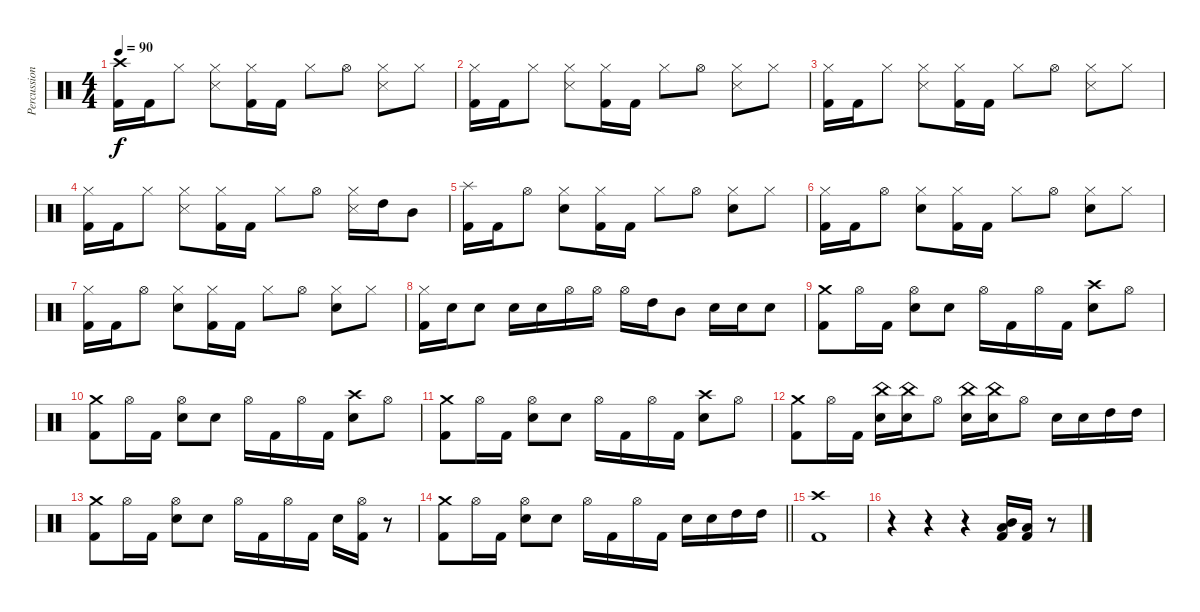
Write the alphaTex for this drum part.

\track ("Percussion" "Percussion") {instrument percussion}
\staff {score}
\articulation defaults
\ts (4 4)
\tempo 90
\clef neutral
\ks c
("Crash high (hit)" "Kick (hit) 2").16{dy f} "Kick (hit) 2".16 "Hi-Hat (closed)".8 ("Hi-Hat (closed)" "Snare (side stick) 3").8 ("Hi-Hat (closed)" "Kick (hit) 2").16 "Kick (hit) 2".16 "Hi-Hat (closed)".8 "Hi-Hat (open)".8 ("Hi-Hat (closed)" "Snare (side stick) 3").8 "Hi-Hat (closed)".8 |
("Hi-Hat (closed)" "Kick (hit) 2").16 "Kick (hit) 2".16 "Hi-Hat (closed)".8 ("Hi-Hat (closed)" "Snare (side stick) 3").8 ("Hi-Hat (closed)" "Kick (hit) 2").16 "Kick (hit) 2".16 "Hi-Hat (closed)".8 "Hi-Hat (open)".8 ("Hi-Hat (closed)" "Snare (side stick) 3").8 "Hi-Hat (closed)".8 |
("Hi-Hat (closed)" "Kick (hit) 2").16 "Kick (hit) 2".16 "Hi-Hat (closed)".8 ("Hi-Hat (closed)" "Snare (side stick) 3").8 ("Hi-Hat (closed)" "Kick (hit) 2").16 "Kick (hit) 2".16 "Hi-Hat (closed)".8 "Hi-Hat (open)".8 ("Hi-Hat (closed)" "Snare (side stick) 3").8 "Hi-Hat (closed)".8 |
("Hi-Hat (closed)" "Kick (hit) 2").16 "Kick (hit) 2".16 "Hi-Hat (closed)".8 ("Hi-Hat (closed)" "Snare (side stick) 3").8 ("Hi-Hat (closed)" "Kick (hit) 2").16 "Kick (hit) 2".16 "Hi-Hat (closed)".8 "Hi-Hat (open)".8 ("Hi-Hat (closed)" "Snare (side stick) 3").16 "High Tom (hit)".16 "Mid Tom (hit)".8 |
("Splash (hit)" "Kick (hit) 2").16 "Kick (hit) 2".16 "Hi-Hat (open)".8 ("Hi-Hat (closed)" "Electric Snare (hit)").8 ("Hi-Hat (closed)" "Kick (hit) 2").16 "Kick (hit) 2".16 "Hi-Hat (closed)".8 "Hi-Hat (open)".8 ("Hi-Hat (closed)" "Electric Snare (hit)").8 "Hi-Hat (closed)".8 |
("Hi-Hat (closed)" "Kick (hit) 2").16 "Kick (hit) 2".16 "Hi-Hat (open)".8 ("Hi-Hat (closed)" "Electric Snare (hit)").8 ("Hi-Hat (closed)" "Kick (hit) 2").16 "Kick (hit) 2".16 "Hi-Hat (closed)".8 "Hi-Hat (open)".8 ("Hi-Hat (closed)" "Electric Snare (hit)").8 "Hi-Hat (closed)".8 |
("Hi-Hat (closed)" "Kick (hit) 2").16 "Kick (hit) 2".16 "Hi-Hat (open)".8 ("Hi-Hat (closed)" "Electric Snare (hit)").8 ("Hi-Hat (closed)" "Kick (hit) 2").16 "Kick (hit) 2".16 "Hi-Hat (closed)".8 "Hi-Hat (open)".8 ("Hi-Hat (closed)" "Electric Snare (hit)").8 "Hi-Hat (closed)".8 |
("Hi-Hat (closed)" "Kick (hit) 2").16 "Electric Snare (hit)".16 "Electric Snare (hit)".8 "Electric Snare (hit)".16 "Electric Snare (hit)".16 "Hi-Hat (open)".16 "Hi-Hat (open)".16 "Hi-Hat (open)".16 "High Tom (hit)".16 "Mid Tom (hit)".8 "Snare (hit) 2".16 "Snare (hit) 2".16 "Snare (hit) 2".8 |
("Crash medium (hit)" "Kick (hit) 2").8 "Hi-Hat (open)".16 "Kick (hit) 2".16 ("Hi-Hat (open)" "Snare (hit) 2").8 "Snare (hit) 2".8 "Hi-Hat (open)".16 "Kick (hit) 2".16 "Hi-Hat (open)".16 "Kick (hit) 2".16 ("Crash high (hit)" "Snare (hit) 2").8 "Hi-Hat (open)".8 |
("Crash medium (hit)" "Kick (hit) 2").8 "Hi-Hat (open)".16 "Kick (hit) 2".16 ("Hi-Hat (open)" "Snare (hit) 2").8 "Snare (hit) 2".8 "Hi-Hat (open)".16 "Kick (hit) 2".16 "Hi-Hat (open)".16 "Kick (hit) 2".16 ("Crash high (hit)" "Snare (hit) 2").8 "Hi-Hat (open)".8 |
("Crash medium (hit)" "Kick (hit) 2").8 "Hi-Hat (open)".16 "Kick (hit) 2".16 ("Hi-Hat (open)" "Snare (hit) 2").8 "Snare (hit) 2".8 "Hi-Hat (open)".16 "Kick (hit) 2".16 "Hi-Hat (open)".16 "Kick (hit) 2".16 ("Crash high (hit)" "Snare (hit) 2").8 "Hi-Hat (open)".8 |
("Crash medium (hit)" "Kick (hit) 2").8 "Hi-Hat (open)".16 "Kick (hit) 2".16 ("China (hit)" "Snare (hit) 2").16 ("China (hit)" "Snare (hit) 2").16 "Hi-Hat (open)".8 ("China (hit)" "Snare (hit) 2").16 ("China (hit)" "Snare (hit) 2").16 "Hi-Hat (open)".8 "Snare (hit) 2".16 "Snare (hit) 2".16 "High Tom (hit)".16 "High Tom (hit)".16 |
("Crash medium (hit)" "Kick (hit) 2").8 "Hi-Hat (open)".16 "Kick (hit) 2".16 ("Hi-Hat (open)" "Snare (hit) 2").8 "Snare (hit) 2".8 "Hi-Hat (open)".16 "Kick (hit) 2".16 "Hi-Hat (open)".16 "Kick (hit) 2".16 "Snare (hit) 2".16 ("Hi-Hat (open)" "Kick (hit) 2").16 r.8 |
\barLineRight lightlight
("Crash medium (hit)" "Kick (hit) 2").8 "Hi-Hat (open)".16 "Kick (hit) 2".16 ("Hi-Hat (open)" "Snare (hit) 2").8 "Snare (hit) 2".8 "Hi-Hat (open)".16 "Kick (hit) 2".16 "Hi-Hat (open)".16 "Kick (hit) 2".16 "Snare (hit) 2".16 "Snare (hit) 2".16 "High Tom (hit)".16 "High Tom (hit)".16 |
("Crash high (hit)" "Kick (hit) 2").1 |
r.4 r.4 r.4 ("Mid Tom (hit)" "Low Floor Tom (hit)" "Kick (hit) 2").16 ("Low Floor Tom (hit)" "Kick (hit) 2").16 r.8
